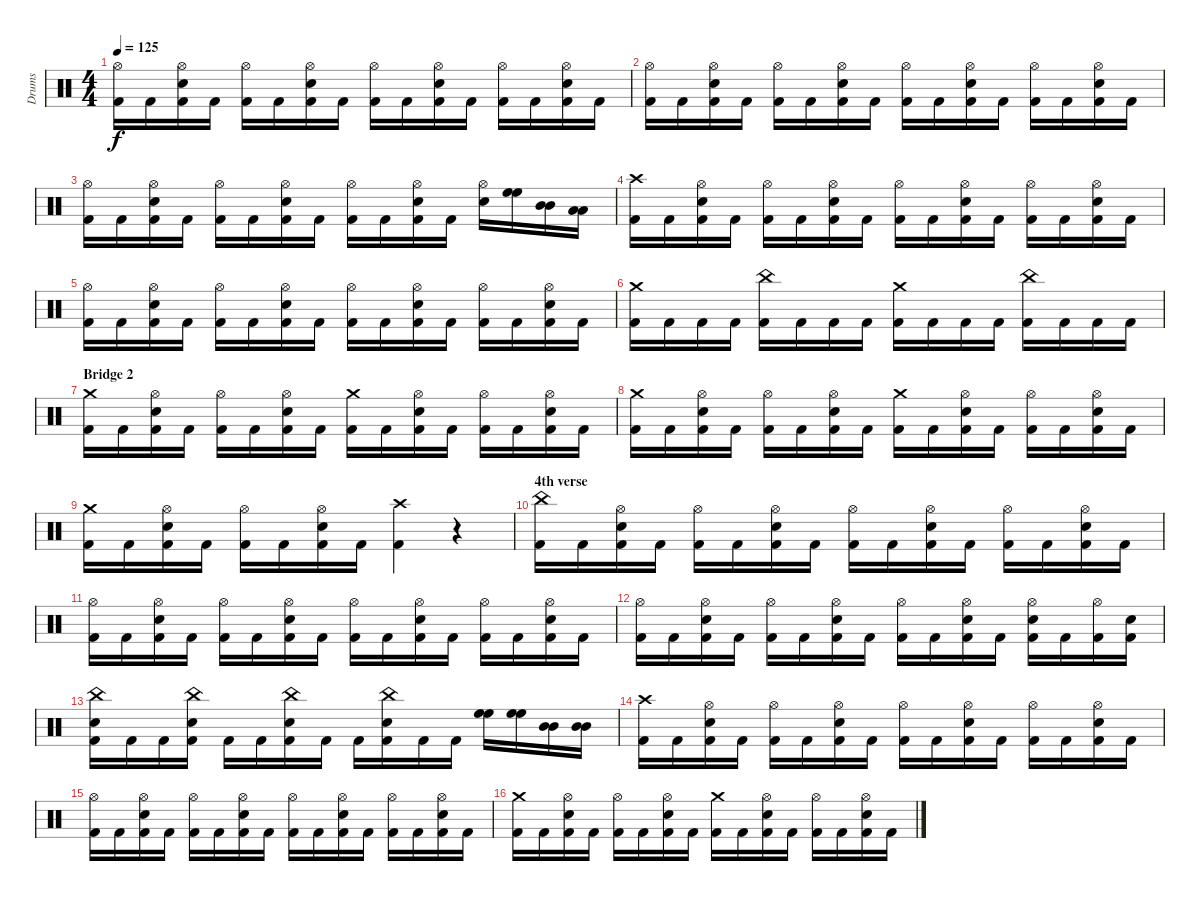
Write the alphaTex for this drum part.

\track ("Drums" "Drums") {instrument percussion}
\staff {score}
\articulation defaults
\ts (4 4)
\tempo 125
\clef neutral
\ks c
("Hi-Hat (open)" "Kick (hit) 2").16{dy f} "Kick (hit) 2".16 ("Hi-Hat (open)" "Snare (hit) 2" "Kick (hit) 2").16 "Kick (hit) 2".16 ("Hi-Hat (open)" "Kick (hit) 2").16 "Kick (hit) 2".16 ("Hi-Hat (open)" "Snare (hit) 2" "Kick (hit) 2").16 "Kick (hit) 2".16 ("Hi-Hat (open)" "Kick (hit) 2").16 "Kick (hit) 2".16 ("Hi-Hat (open)" "Snare (hit) 2" "Kick (hit) 2").16 "Kick (hit) 2".16 ("Hi-Hat (open)" "Kick (hit) 2").16 "Kick (hit) 2".16 ("Hi-Hat (open)" "Snare (hit) 2" "Kick (hit) 2").16 "Kick (hit) 2".16 |
("Hi-Hat (open)" "Kick (hit) 2").16 "Kick (hit) 2".16 ("Hi-Hat (open)" "Snare (hit) 2" "Kick (hit) 2").16 "Kick (hit) 2".16 ("Hi-Hat (open)" "Kick (hit) 2").16 "Kick (hit) 2".16 ("Hi-Hat (open)" "Snare (hit) 2" "Kick (hit) 2").16 "Kick (hit) 2".16 ("Hi-Hat (open)" "Kick (hit) 2").16 "Kick (hit) 2".16 ("Hi-Hat (open)" "Snare (hit) 2" "Kick (hit) 2").16 "Kick (hit) 2".16 ("Hi-Hat (open)" "Kick (hit) 2").16 "Kick (hit) 2".16 ("Hi-Hat (open)" "Snare (hit) 2" "Kick (hit) 2").16 "Kick (hit) 2".16 |
("Hi-Hat (open)" "Kick (hit) 2").16 "Kick (hit) 2".16 ("Hi-Hat (open)" "Snare (hit) 2" "Kick (hit) 2").16 "Kick (hit) 2".16 ("Hi-Hat (open)" "Kick (hit) 2").16 "Kick (hit) 2".16 ("Hi-Hat (open)" "Snare (hit) 2" "Kick (hit) 2").16 "Kick (hit) 2".16 ("Hi-Hat (open)" "Kick (hit) 2").16 "Kick (hit) 2".16 ("Hi-Hat (open)" "Snare (hit) 2" "Kick (hit) 2").16 "Kick (hit) 2".16 ("Hi-Hat (open)" "Snare (hit) 2").16 ("High Floor Tom (hit)" "High Floor Tom (hit)").16 ("Mid Tom (hit)" "Mid Tom (hit)").16 ("Low Tom (hit)" "Low Tom (hit)").16 |
("Crash high (hit)" "Kick (hit) 2").16 "Kick (hit) 2".16 ("Hi-Hat (open)" "Snare (hit) 2" "Kick (hit) 2").16 "Kick (hit) 2".16 ("Hi-Hat (open)" "Kick (hit) 2").16 "Kick (hit) 2".16 ("Hi-Hat (open)" "Snare (hit) 2" "Kick (hit) 2").16 "Kick (hit) 2".16 ("Hi-Hat (open)" "Kick (hit) 2").16 "Kick (hit) 2".16 ("Hi-Hat (open)" "Snare (hit) 2" "Kick (hit) 2").16 "Kick (hit) 2".16 ("Hi-Hat (open)" "Kick (hit) 2").16 "Kick (hit) 2".16 ("Hi-Hat (open)" "Snare (hit) 2" "Kick (hit) 2").16 "Kick (hit) 2".16 |
("Hi-Hat (open)" "Kick (hit) 2").16 "Kick (hit) 2".16 ("Hi-Hat (open)" "Snare (hit) 2" "Kick (hit) 2").16 "Kick (hit) 2".16 ("Hi-Hat (open)" "Kick (hit) 2").16 "Kick (hit) 2".16 ("Hi-Hat (open)" "Snare (hit) 2" "Kick (hit) 2").16 "Kick (hit) 2".16 ("Hi-Hat (open)" "Kick (hit) 2").16 "Kick (hit) 2".16 ("Hi-Hat (open)" "Snare (hit) 2" "Kick (hit) 2").16 "Kick (hit) 2".16 ("Hi-Hat (open)" "Kick (hit) 2").16 "Kick (hit) 2".16 ("Hi-Hat (open)" "Snare (hit) 2" "Kick (hit) 2").16 "Kick (hit) 2".16 |
("Crash medium (hit)" "Kick (hit) 2").16 "Kick (hit) 2".16 "Kick (hit) 2".16 "Kick (hit) 2".16 ("China (hit)" "Kick (hit) 2").16 "Kick (hit) 2".16 "Kick (hit) 2".16 "Kick (hit) 2".16 ("Crash medium (hit)" "Kick (hit) 2").16 "Kick (hit) 2".16 "Kick (hit) 2".16 "Kick (hit) 2".16 ("China (hit)" "Kick (hit) 2").16 "Kick (hit) 2".16 "Kick (hit) 2".16 "Kick (hit) 2".16 |
\section ("" "Bridge 2")
("Crash medium (hit)" "Kick (hit) 2").16 "Kick (hit) 2".16 ("Hi-Hat (open)" "Snare (hit) 2" "Kick (hit) 2").16 "Kick (hit) 2".16 ("Hi-Hat (open)" "Kick (hit) 2").16 "Kick (hit) 2".16 ("Hi-Hat (open)" "Snare (hit) 2" "Kick (hit) 2").16 "Kick (hit) 2".16 ("Crash medium (hit)" "Kick (hit) 2").16 "Kick (hit) 2".16 ("Hi-Hat (open)" "Snare (hit) 2" "Kick (hit) 2").16 "Kick (hit) 2".16 ("Hi-Hat (open)" "Kick (hit) 2").16 "Kick (hit) 2".16 ("Hi-Hat (open)" "Snare (hit) 2" "Kick (hit) 2").16 "Kick (hit) 2".16 |
("Crash medium (hit)" "Kick (hit) 2").16 "Kick (hit) 2".16 ("Hi-Hat (open)" "Snare (hit) 2" "Kick (hit) 2").16 "Kick (hit) 2".16 ("Hi-Hat (open)" "Kick (hit) 2").16 "Kick (hit) 2".16 ("Hi-Hat (open)" "Snare (hit) 2" "Kick (hit) 2").16 "Kick (hit) 2".16 ("Crash medium (hit)" "Kick (hit) 2").16 "Kick (hit) 2".16 ("Hi-Hat (open)" "Snare (hit) 2" "Kick (hit) 2").16 "Kick (hit) 2".16 ("Hi-Hat (open)" "Kick (hit) 2").16 "Kick (hit) 2".16 ("Hi-Hat (open)" "Snare (hit) 2" "Kick (hit) 2").16 "Kick (hit) 2".16 |
("Crash medium (hit)" "Kick (hit) 2").16 "Kick (hit) 2".16 ("Hi-Hat (open)" "Snare (hit) 2" "Kick (hit) 2").16 "Kick (hit) 2".16 ("Hi-Hat (open)" "Kick (hit) 2").16 "Kick (hit) 2".16 ("Hi-Hat (open)" "Snare (hit) 2" "Kick (hit) 2").16 "Kick (hit) 2".16 ("Crash high (hit)" "Kick (hit) 2").4 r.4 |
\section ("" "4th verse")
("China (hit)" "Kick (hit) 2").16 "Kick (hit) 2".16 ("Hi-Hat (open)" "Snare (hit) 2" "Kick (hit) 2").16 "Kick (hit) 2".16 ("Hi-Hat (open)" "Kick (hit) 2").16 "Kick (hit) 2".16 ("Hi-Hat (open)" "Snare (hit) 2" "Kick (hit) 2").16 "Kick (hit) 2".16 ("Hi-Hat (open)" "Kick (hit) 2").16 "Kick (hit) 2".16 ("Hi-Hat (open)" "Snare (hit) 2" "Kick (hit) 2").16 "Kick (hit) 2".16 ("Hi-Hat (open)" "Kick (hit) 2").16 "Kick (hit) 2".16 ("Hi-Hat (open)" "Snare (hit) 2" "Kick (hit) 2").16 "Kick (hit) 2".16 |
("Hi-Hat (open)" "Kick (hit) 2").16 "Kick (hit) 2".16 ("Hi-Hat (open)" "Snare (hit) 2" "Kick (hit) 2").16 "Kick (hit) 2".16 ("Hi-Hat (open)" "Kick (hit) 2").16 "Kick (hit) 2".16 ("Hi-Hat (open)" "Snare (hit) 2" "Kick (hit) 2").16 "Kick (hit) 2".16 ("Hi-Hat (open)" "Kick (hit) 2").16 "Kick (hit) 2".16 ("Hi-Hat (open)" "Snare (hit) 2" "Kick (hit) 2").16 "Kick (hit) 2".16 ("Hi-Hat (open)" "Kick (hit) 2").16 "Kick (hit) 2".16 ("Hi-Hat (open)" "Snare (hit) 2" "Kick (hit) 2").16 "Kick (hit) 2".16 |
("Hi-Hat (open)" "Kick (hit) 2").16 "Kick (hit) 2".16 ("Hi-Hat (open)" "Snare (hit) 2" "Kick (hit) 2").16 "Kick (hit) 2".16 ("Hi-Hat (open)" "Kick (hit) 2").16 "Kick (hit) 2".16 ("Hi-Hat (open)" "Snare (hit) 2" "Kick (hit) 2").16 "Kick (hit) 2".16 ("Hi-Hat (open)" "Kick (hit) 2").16 "Kick (hit) 2".16 ("Hi-Hat (open)" "Snare (hit) 2" "Kick (hit) 2").16 "Kick (hit) 2".16 ("Hi-Hat (open)" "Snare (hit) 2" "Kick (hit) 2").16 "Kick (hit) 2".16 ("Hi-Hat (open)" "Kick (hit) 2").16 ("Snare (hit) 2" "Kick (hit) 2").16 |
("China (hit)" "Snare (hit) 2" "Kick (hit) 2").16 "Kick (hit) 2".16 "Kick (hit) 2".16 ("China (hit)" "Snare (hit) 2" "Kick (hit) 2").16 "Kick (hit) 2".16 "Kick (hit) 2".16 ("China (hit)" "Snare (hit) 2" "Kick (hit) 2").16 "Kick (hit) 2".16 "Kick (hit) 2".16 ("China (hit)" "Snare (hit) 2" "Kick (hit) 2").16 "Kick (hit) 2".16 "Kick (hit) 2".16 ("High Floor Tom (hit)" "High Floor Tom (hit)").16 ("High Floor Tom (hit)" "High Floor Tom (hit)").16 ("Mid Tom (hit)" "Mid Tom (hit)").16 ("Mid Tom (hit)" "Mid Tom (hit)").16 |
("Crash high (hit)" "Kick (hit) 2").16 "Kick (hit) 2".16 ("Hi-Hat (open)" "Snare (hit) 2" "Kick (hit) 2").16 "Kick (hit) 2".16 ("Hi-Hat (open)" "Kick (hit) 2").16 "Kick (hit) 2".16 ("Hi-Hat (open)" "Snare (hit) 2" "Kick (hit) 2").16 "Kick (hit) 2".16 ("Hi-Hat (open)" "Kick (hit) 2").16 "Kick (hit) 2".16 ("Hi-Hat (open)" "Snare (hit) 2" "Kick (hit) 2").16 "Kick (hit) 2".16 ("Hi-Hat (open)" "Kick (hit) 2").16 "Kick (hit) 2".16 ("Hi-Hat (open)" "Snare (hit) 2" "Kick (hit) 2").16 "Kick (hit) 2".16 |
("Hi-Hat (open)" "Kick (hit) 2").16 "Kick (hit) 2".16 ("Hi-Hat (open)" "Snare (hit) 2" "Kick (hit) 2").16 "Kick (hit) 2".16 ("Hi-Hat (open)" "Kick (hit) 2").16 "Kick (hit) 2".16 ("Hi-Hat (open)" "Snare (hit) 2" "Kick (hit) 2").16 "Kick (hit) 2".16 ("Hi-Hat (open)" "Kick (hit) 2").16 "Kick (hit) 2".16 ("Hi-Hat (open)" "Snare (hit) 2" "Kick (hit) 2").16 "Kick (hit) 2".16 ("Hi-Hat (open)" "Kick (hit) 2").16 "Kick (hit) 2".16 ("Hi-Hat (open)" "Snare (hit) 2" "Kick (hit) 2").16 "Kick (hit) 2".16 |
("Crash medium (hit)" "Kick (hit) 2").16 "Kick (hit) 2".16 ("Hi-Hat (open)" "Snare (hit) 2" "Kick (hit) 2").16 "Kick (hit) 2".16 ("Hi-Hat (open)" "Kick (hit) 2").16 "Kick (hit) 2".16 ("Hi-Hat (open)" "Snare (hit) 2" "Kick (hit) 2").16 "Kick (hit) 2".16 ("Crash medium (hit)" "Kick (hit) 2").16 "Kick (hit) 2".16 ("Hi-Hat (open)" "Snare (hit) 2" "Kick (hit) 2").16 "Kick (hit) 2".16 ("Hi-Hat (open)" "Kick (hit) 2").16 "Kick (hit) 2".16 ("Hi-Hat (open)" "Snare (hit) 2" "Kick (hit) 2").16 "Kick (hit) 2".16
